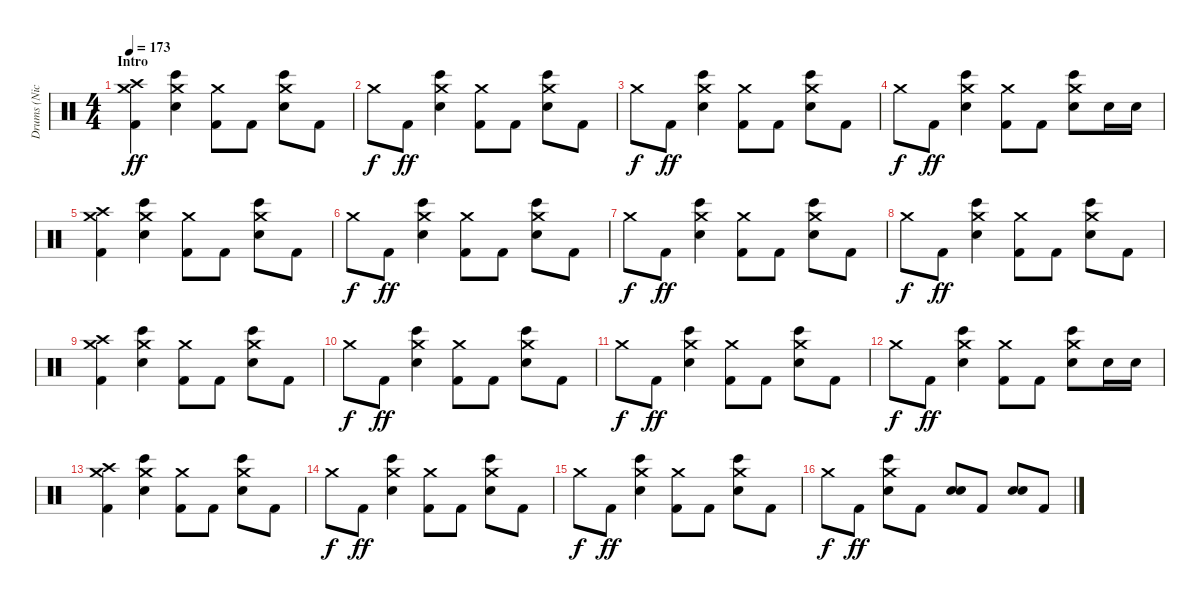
\track ("Drums (Nick Oshiro)" "Drums (Nic") {instrument percussion}
\staff {score}
\articulation defaults
\ts (4 4)
\section ("" "Intro")
\tempo 173
\clef neutral
\ks c
("Crash medium (hit)" "Crash high (hit)" "Kick (hit) 2").4{dy ff} ("Crash medium (hit)" "Bongo High (hit)" "Snare (hit) 2").4 ("Crash medium (hit)" "Kick (hit) 2").8 "Kick (hit) 2".8 ("Crash medium (hit)" "Bongo High (hit)" "Snare (hit) 2").8 "Kick (hit) 2".8 |
"Crash medium (hit)".8{dy f} "Kick (hit) 2".8{dy ff} ("Crash medium (hit)" "Bongo High (hit)" "Snare (hit) 2").4 ("Crash medium (hit)" "Kick (hit) 2").8 "Kick (hit) 2".8 ("Crash medium (hit)" "Bongo High (hit)" "Snare (hit) 2").8 "Kick (hit) 2".8 |
"Crash medium (hit)".8{dy f} "Kick (hit) 2".8{dy ff} ("Crash medium (hit)" "Bongo High (hit)" "Snare (hit) 2").4 ("Crash medium (hit)" "Kick (hit) 2").8 "Kick (hit) 2".8 ("Crash medium (hit)" "Bongo High (hit)" "Snare (hit) 2").8 "Kick (hit) 2".8 |
"Crash medium (hit)".8{dy f} "Kick (hit) 2".8{dy ff} ("Crash medium (hit)" "Bongo High (hit)" "Snare (hit) 2").4 ("Crash medium (hit)" "Kick (hit) 2").8 "Kick (hit) 2".8 ("Crash medium (hit)" "Bongo High (hit)" "Snare (hit) 2").8 "Snare (hit) 2".16 "Snare (hit) 2".16 |
("Crash medium (hit)" "Crash high (hit)" "Kick (hit) 2").4 ("Crash medium (hit)" "Bongo High (hit)" "Snare (hit) 2").4 ("Crash medium (hit)" "Kick (hit) 2").8 "Kick (hit) 2".8 ("Crash medium (hit)" "Bongo High (hit)" "Snare (hit) 2").8 "Kick (hit) 2".8 |
"Crash medium (hit)".8{dy f} "Kick (hit) 2".8{dy ff} ("Crash medium (hit)" "Bongo High (hit)" "Snare (hit) 2").4 ("Crash medium (hit)" "Kick (hit) 2").8 "Kick (hit) 2".8 ("Crash medium (hit)" "Bongo High (hit)" "Snare (hit) 2").8 "Kick (hit) 2".8 |
"Crash medium (hit)".8{dy f} "Kick (hit) 2".8{dy ff} ("Crash medium (hit)" "Bongo High (hit)" "Snare (hit) 2").4 ("Crash medium (hit)" "Kick (hit) 2").8 "Kick (hit) 2".8 ("Crash medium (hit)" "Bongo High (hit)" "Snare (hit) 2").8 "Kick (hit) 2".8 |
"Crash medium (hit)".8{dy f} "Kick (hit) 2".8{dy ff} ("Crash medium (hit)" "Bongo High (hit)" "Snare (hit) 2").4 ("Crash medium (hit)" "Kick (hit) 2").8 "Kick (hit) 2".8 ("Crash medium (hit)" "Bongo High (hit)" "Snare (hit) 2").8 "Kick (hit) 2".8 |
("Crash medium (hit)" "Crash high (hit)" "Kick (hit) 2").4 ("Crash medium (hit)" "Bongo High (hit)" "Snare (hit) 2").4 ("Crash medium (hit)" "Kick (hit) 2").8 "Kick (hit) 2".8 ("Crash medium (hit)" "Bongo High (hit)" "Snare (hit) 2").8 "Kick (hit) 2".8 |
"Crash medium (hit)".8{dy f} "Kick (hit) 2".8{dy ff} ("Crash medium (hit)" "Bongo High (hit)" "Snare (hit) 2").4 ("Crash medium (hit)" "Kick (hit) 2").8 "Kick (hit) 2".8 ("Crash medium (hit)" "Bongo High (hit)" "Snare (hit) 2").8 "Kick (hit) 2".8 |
"Crash medium (hit)".8{dy f} "Kick (hit) 2".8{dy ff} ("Crash medium (hit)" "Bongo High (hit)" "Snare (hit) 2").4 ("Crash medium (hit)" "Kick (hit) 2").8 "Kick (hit) 2".8 ("Crash medium (hit)" "Bongo High (hit)" "Snare (hit) 2").8 "Kick (hit) 2".8 |
"Crash medium (hit)".8{dy f} "Kick (hit) 2".8{dy ff} ("Crash medium (hit)" "Bongo High (hit)" "Snare (hit) 2").4 ("Crash medium (hit)" "Kick (hit) 2").8 "Kick (hit) 2".8 ("Crash medium (hit)" "Bongo High (hit)" "Snare (hit) 2").8 "Snare (hit) 2".16 "Snare (hit) 2".16 |
("Crash medium (hit)" "Crash high (hit)" "Kick (hit) 2").4 ("Crash medium (hit)" "Bongo High (hit)" "Snare (hit) 2").4 ("Crash medium (hit)" "Kick (hit) 2").8 "Kick (hit) 2".8 ("Crash medium (hit)" "Bongo High (hit)" "Snare (hit) 2").8 "Kick (hit) 2".8 |
"Crash medium (hit)".8{dy f} "Kick (hit) 2".8{dy ff} ("Crash medium (hit)" "Bongo High (hit)" "Snare (hit) 2").4 ("Crash medium (hit)" "Kick (hit) 2").8 "Kick (hit) 2".8 ("Crash medium (hit)" "Bongo High (hit)" "Snare (hit) 2").8 "Kick (hit) 2".8 |
"Crash medium (hit)".8{dy f} "Kick (hit) 2".8{dy ff} ("Crash medium (hit)" "Bongo High (hit)" "Snare (hit) 2").4 ("Crash medium (hit)" "Kick (hit) 2").8 "Kick (hit) 2".8 ("Crash medium (hit)" "Bongo High (hit)" "Snare (hit) 2").8 "Kick (hit) 2".8 |
"Crash medium (hit)".8{dy f} "Kick (hit) 2".8{dy ff} ("Crash medium (hit)" "Bongo High (hit)" "Snare (hit) 2").8 "Kick (hit) 2".8 ("Snare (hit) 2" "Snare (hit) 2").8 "Kick (hit) 2".8 ("Snare (hit) 2" "Snare (hit) 2").8 "Kick (hit) 2".8
